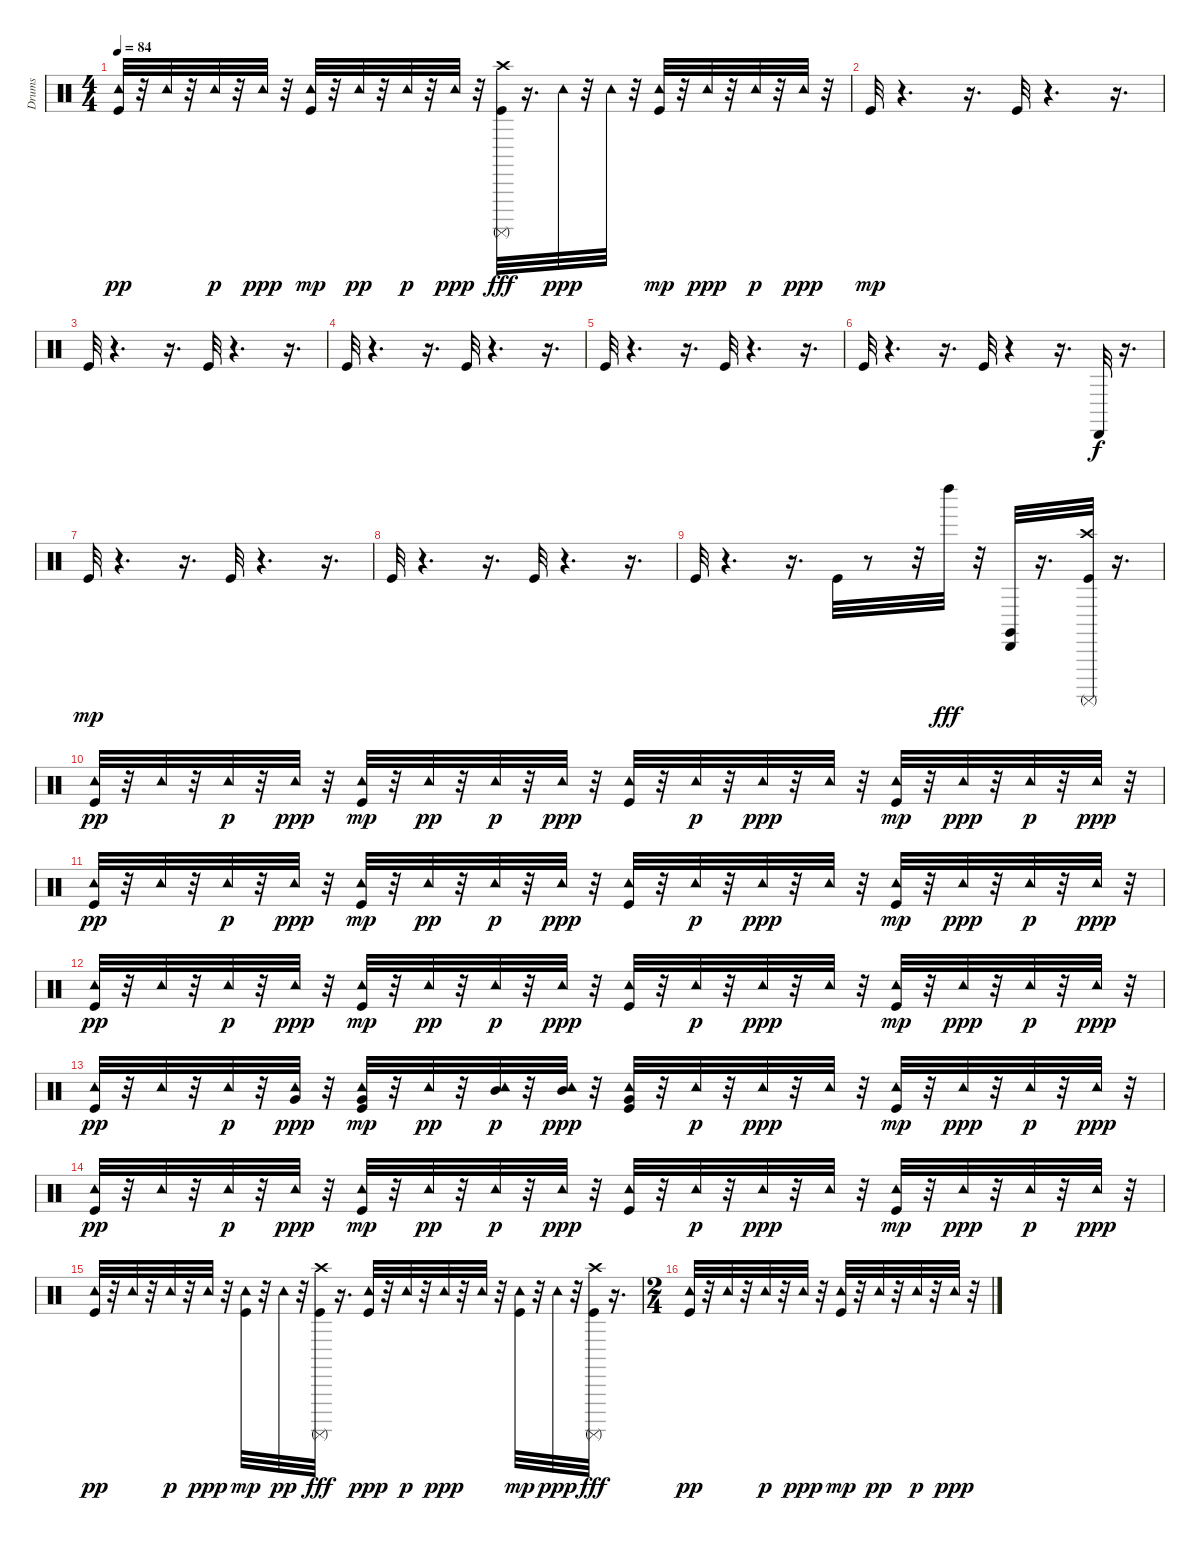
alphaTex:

\track ("Drums" "Drums") {instrument percussion}
\staff {score}
\articulation defaults
\ts (4 4)
\tempo 84
\clef neutral
\ks c
("Kick (hit)" "Tambourine (hit)").32{dy pp} r.32 "Tambourine (hit)".32 r.32 "Tambourine (hit)".32{dy p} r.32 "Tambourine (hit)".32{dy ppp} r.32 ("Kick (hit)" "Tambourine (hit)").32{dy mp} r.32 "Tambourine (hit)".32{dy pp} r.32 "Tambourine (hit)".32{dy p} r.32 "Tambourine (hit)".32{dy ppp} r.32 ("Surdo (mute)" "Kick (hit)" "Crash high (hit)").32{dy fff} r.16{d} "Tambourine (hit)".32{dy ppp} r.32 "Tambourine (hit)".32 r.32 ("Kick (hit)" "Tambourine (hit)").32{dy mp} r.32 "Tambourine (hit)".32{dy ppp} r.32 "Tambourine (hit)".32{dy p} r.32 "Tambourine (hit)".32{dy ppp} r.32 |
"Kick (hit)".32{dy mp} r.4{d} r.16{d} "Kick (hit)".32 r.4{d} r.16{d} |
"Kick (hit)".32 r.4{d} r.16{d} "Kick (hit)".32 r.4{d} r.16{d} |
"Kick (hit)".32 r.4{d} r.16{d} "Kick (hit)".32 r.4{d} r.16{d} |
"Kick (hit)".32 r.4{d} r.16{d} "Kick (hit)".32 r.4{d} r.16{d} |
"Kick (hit)".32 r.4{d} r.16{d} "Kick (hit)".32 r.4 r.16{d} "Cabasa (hit)".32{dy f} r.16{d} |
"Kick (hit)".32{dy mp} r.4{d} r.16{d} "Kick (hit)".32 r.4{d} r.16{d} |
"Kick (hit)".32 r.4{d} r.16{d} "Kick (hit)".32 r.4{d} r.16{d} |
"Kick (hit)".32 r.4{d} r.16{d} "Kick (hit)".32 r.8 r.32 "Left Maraca (hit)".32{dy fff} r.32 ("Claves (hit)" "Cabasa (hit)").32 r.16{d} ("Crash high (hit)" "Surdo (mute)" "Kick (hit)").32 r.16{d} |
("Kick (hit)" "Tambourine (hit)").32{dy pp} r.32 "Tambourine (hit)".32 r.32 "Tambourine (hit)".32{dy p} r.32 "Tambourine (hit)".32{dy ppp} r.32 ("Kick (hit)" "Tambourine (hit)").32{dy mp} r.32 "Tambourine (hit)".32{dy pp} r.32 "Tambourine (hit)".32{dy p} r.32 "Tambourine (hit)".32{dy ppp} r.32 ("Kick (hit)" "Tambourine (hit)").32 r.32 "Tambourine (hit)".32{dy p} r.32 "Tambourine (hit)".32{dy ppp} r.32 "Tambourine (hit)".32 r.32 ("Kick (hit)" "Tambourine (hit)").32{dy mp} r.32 "Tambourine (hit)".32{dy ppp} r.32 "Tambourine (hit)".32{dy p} r.32 "Tambourine (hit)".32{dy ppp} r.32 |
("Kick (hit)" "Tambourine (hit)").32{dy pp} r.32 "Tambourine (hit)".32 r.32 "Tambourine (hit)".32{dy p} r.32 "Tambourine (hit)".32{dy ppp} r.32 ("Kick (hit)" "Tambourine (hit)").32{dy mp} r.32 "Tambourine (hit)".32{dy pp} r.32 "Tambourine (hit)".32{dy p} r.32 "Tambourine (hit)".32{dy ppp} r.32 ("Kick (hit)" "Tambourine (hit)").32 r.32 "Tambourine (hit)".32{dy p} r.32 "Tambourine (hit)".32{dy ppp} r.32 "Tambourine (hit)".32 r.32 ("Kick (hit)" "Tambourine (hit)").32{dy mp} r.32 "Tambourine (hit)".32{dy ppp} r.32 "Tambourine (hit)".32{dy p} r.32 "Tambourine (hit)".32{dy ppp} r.32 |
("Kick (hit)" "Tambourine (hit)").32{dy pp} r.32 "Tambourine (hit)".32 r.32 "Tambourine (hit)".32{dy p} r.32 "Tambourine (hit)".32{dy ppp} r.32 ("Kick (hit)" "Tambourine (hit)").32{dy mp} r.32 "Tambourine (hit)".32{dy pp} r.32 "Tambourine (hit)".32{dy p} r.32 "Tambourine (hit)".32{dy ppp} r.32 ("Kick (hit)" "Tambourine (hit)").32 r.32 "Tambourine (hit)".32{dy p} r.32 "Tambourine (hit)".32{dy ppp} r.32 "Tambourine (hit)".32 r.32 ("Kick (hit)" "Tambourine (hit)").32{dy mp} r.32 "Tambourine (hit)".32{dy ppp} r.32 "Tambourine (hit)".32{dy p} r.32 "Tambourine (hit)".32{dy ppp} r.32 |
("Kick (hit)" "Tambourine (hit)").32{dy pp} r.32 "Tambourine (hit)".32 r.32 "Tambourine (hit)".32{dy p} r.32 ("Very Low Tom (hit)" "Tambourine (hit)").32{dy ppp} r.32 ("Very Low Tom (hit)" "Kick (hit)" "Tambourine (hit)").32{dy mp} r.32 "Tambourine (hit)".32{dy pp} r.32 ("Mid Tom (hit)" "Tambourine (hit)").32{dy p} r.32 ("Mid Tom (hit)" "Tambourine (hit)").32{dy ppp} r.32 ("Very Low Tom (hit)" "Kick (hit)" "Tambourine (hit)").32 r.32 "Tambourine (hit)".32{dy p} r.32 "Tambourine (hit)".32{dy ppp} r.32 "Tambourine (hit)".32 r.32 ("Kick (hit)" "Tambourine (hit)").32{dy mp} r.32 "Tambourine (hit)".32{dy ppp} r.32 "Tambourine (hit)".32{dy p} r.32 "Tambourine (hit)".32{dy ppp} r.32 |
("Kick (hit)" "Tambourine (hit)").32{dy pp} r.32 "Tambourine (hit)".32 r.32 "Tambourine (hit)".32{dy p} r.32 "Tambourine (hit)".32{dy ppp} r.32 ("Kick (hit)" "Tambourine (hit)").32{dy mp} r.32 "Tambourine (hit)".32{dy pp} r.32 "Tambourine (hit)".32{dy p} r.32 "Tambourine (hit)".32{dy ppp} r.32 ("Kick (hit)" "Tambourine (hit)").32 r.32 "Tambourine (hit)".32{dy p} r.32 "Tambourine (hit)".32{dy ppp} r.32 "Tambourine (hit)".32 r.32 ("Kick (hit)" "Tambourine (hit)").32{dy mp} r.32 "Tambourine (hit)".32{dy ppp} r.32 "Tambourine (hit)".32{dy p} r.32 "Tambourine (hit)".32{dy ppp} r.32 |
("Kick (hit)" "Tambourine (hit)").32{dy pp} r.32 "Tambourine (hit)".32 r.32 "Tambourine (hit)".32{dy p} r.32 "Tambourine (hit)".32{dy ppp} r.32 ("Kick (hit)" "Tambourine (hit)").32{dy mp} r.32 "Tambourine (hit)".32{dy pp} r.32 ("Crash high (hit)" "Surdo (mute)" "Kick (hit)").32{dy fff} r.16{d} ("Kick (hit)" "Tambourine (hit)").32{dy ppp} r.32 "Tambourine (hit)".32{dy p} r.32 "Tambourine (hit)".32{dy ppp} r.32 "Tambourine (hit)".32 r.32 ("Kick (hit)" "Tambourine (hit)").32{dy mp} r.32 "Tambourine (hit)".32{dy ppp} r.32 ("Kick (hit)" "Surdo (mute)" "Crash high (hit)").32{dy fff} r.16{d} |
\ts (2 4)
("Kick (hit)" "Tambourine (hit)").32{dy pp} r.32 "Tambourine (hit)".32 r.32 "Tambourine (hit)".32{dy p} r.32 "Tambourine (hit)".32{dy ppp} r.32 ("Kick (hit)" "Tambourine (hit)").32{dy mp} r.32 "Tambourine (hit)".32{dy pp} r.32 "Tambourine (hit)".32{dy p} r.32 "Tambourine (hit)".32{dy ppp} r.32
